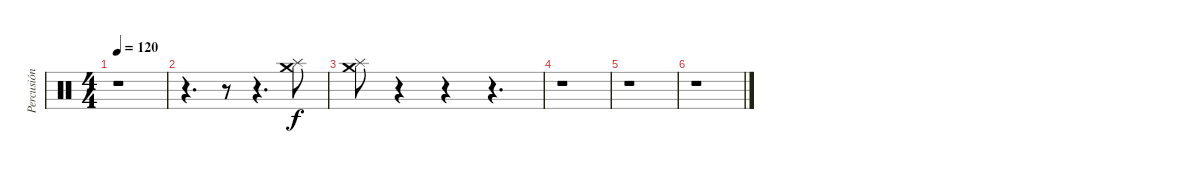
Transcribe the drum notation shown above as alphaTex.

\track ("Percusión" "Percusión") {instrument percussion}
\staff {score}
\articulation defaults
\ts (4 4)
\tempo 120
\clef neutral
\ks c
r.1{dy f} |
r.4{d} r.8 r.4{d} ("Splash (hit)" "Crash medium (hit)").8 |
("Splash (hit)" "Crash medium (hit)").8 r.4 r.4 r.4{d} |
r.1 |
r.1 |
r.1
